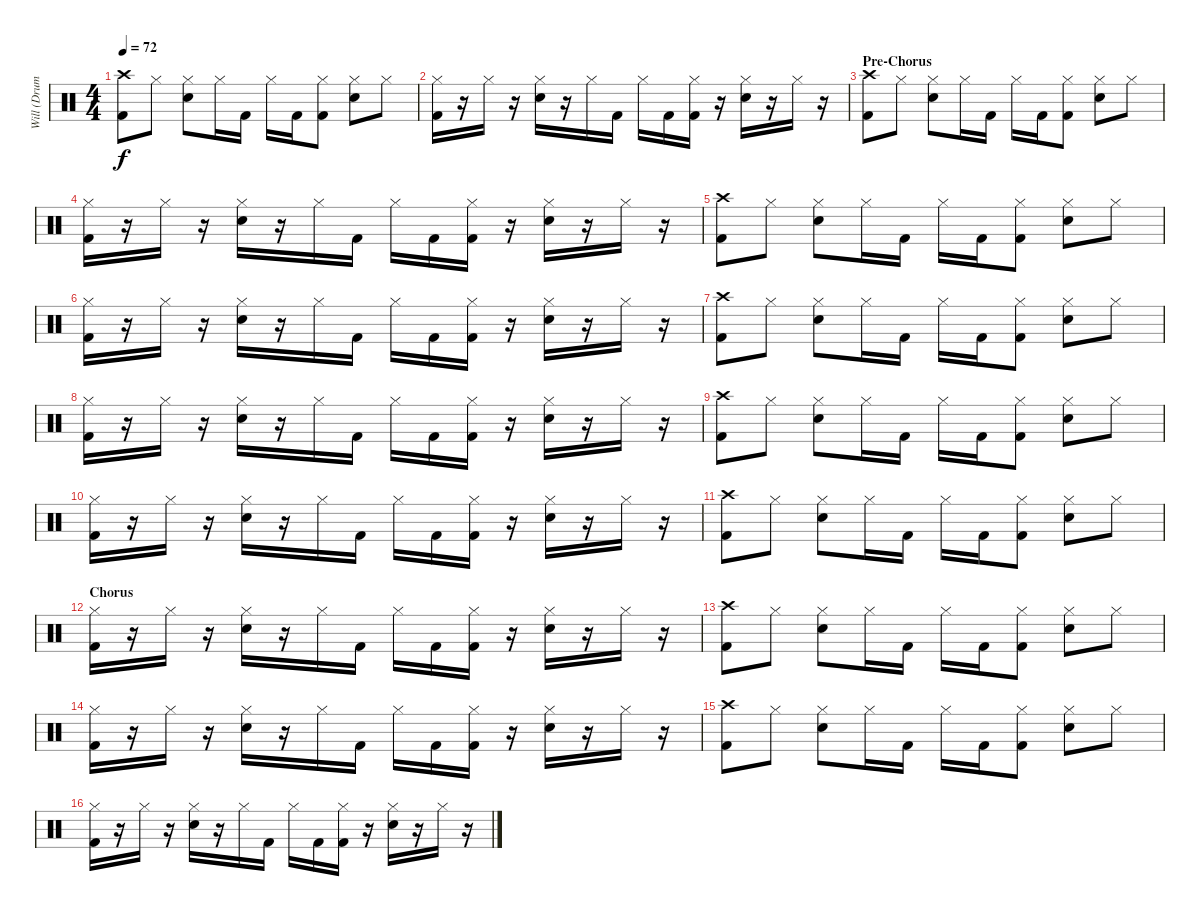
\track ("Will (Drums)" "Will (Drum") {instrument percussion}
\staff {score}
\articulation defaults
\ts (4 4)
\tempo 72
\clef neutral
\ks c
("Crash high (hit)" "Kick (hit) 2").8{dy f} "Hi-Hat (closed)".8 ("Hi-Hat (closed)" "Snare (hit) 2").8 "Hi-Hat (closed)".16 "Kick (hit) 2".16 "Hi-Hat (closed)".16 "Kick (hit) 2".16 ("Hi-Hat (closed)" "Kick (hit) 2").8 ("Hi-Hat (closed)" "Snare (hit) 2").8 "Hi-Hat (closed)".8 |
("Hi-Hat (closed)" "Kick (hit) 2").16 r.16 "Hi-Hat (closed)".16 r.16 ("Hi-Hat (closed)" "Snare (hit) 2").16 r.16 "Hi-Hat (closed)".16 "Kick (hit) 2".16 "Hi-Hat (closed)".16 "Kick (hit) 2".16 ("Hi-Hat (closed)" "Kick (hit) 2").16 r.16 ("Hi-Hat (closed)" "Snare (hit) 2").16 r.16 "Hi-Hat (closed)".16 r.16 |
\section ("" "Pre-Chorus")
("Crash high (hit)" "Kick (hit) 2").8 "Hi-Hat (closed)".8 ("Hi-Hat (closed)" "Snare (hit) 2").8 "Hi-Hat (closed)".16 "Kick (hit) 2".16 "Hi-Hat (closed)".16 "Kick (hit) 2".16 ("Hi-Hat (closed)" "Kick (hit) 2").8 ("Hi-Hat (closed)" "Snare (hit) 2").8 "Hi-Hat (closed)".8 |
("Hi-Hat (closed)" "Kick (hit) 2").16 r.16 "Hi-Hat (closed)".16 r.16 ("Hi-Hat (closed)" "Snare (hit) 2").16 r.16 "Hi-Hat (closed)".16 "Kick (hit) 2".16 "Hi-Hat (closed)".16 "Kick (hit) 2".16 ("Hi-Hat (closed)" "Kick (hit) 2").16 r.16 ("Hi-Hat (closed)" "Snare (hit) 2").16 r.16 "Hi-Hat (closed)".16 r.16 |
("Crash high (hit)" "Kick (hit) 2").8 "Hi-Hat (closed)".8 ("Hi-Hat (closed)" "Snare (hit) 2").8 "Hi-Hat (closed)".16 "Kick (hit) 2".16 "Hi-Hat (closed)".16 "Kick (hit) 2".16 ("Hi-Hat (closed)" "Kick (hit) 2").8 ("Hi-Hat (closed)" "Snare (hit) 2").8 "Hi-Hat (closed)".8 |
("Hi-Hat (closed)" "Kick (hit) 2").16 r.16 "Hi-Hat (closed)".16 r.16 ("Hi-Hat (closed)" "Snare (hit) 2").16 r.16 "Hi-Hat (closed)".16 "Kick (hit) 2".16 "Hi-Hat (closed)".16 "Kick (hit) 2".16 ("Hi-Hat (closed)" "Kick (hit) 2").16 r.16 ("Hi-Hat (closed)" "Snare (hit) 2").16 r.16 "Hi-Hat (closed)".16 r.16 |
("Crash high (hit)" "Kick (hit) 2").8 "Hi-Hat (closed)".8 ("Hi-Hat (closed)" "Snare (hit) 2").8 "Hi-Hat (closed)".16 "Kick (hit) 2".16 "Hi-Hat (closed)".16 "Kick (hit) 2".16 ("Hi-Hat (closed)" "Kick (hit) 2").8 ("Hi-Hat (closed)" "Snare (hit) 2").8 "Hi-Hat (closed)".8 |
("Hi-Hat (closed)" "Kick (hit) 2").16 r.16 "Hi-Hat (closed)".16 r.16 ("Hi-Hat (closed)" "Snare (hit) 2").16 r.16 "Hi-Hat (closed)".16 "Kick (hit) 2".16 "Hi-Hat (closed)".16 "Kick (hit) 2".16 ("Hi-Hat (closed)" "Kick (hit) 2").16 r.16 ("Hi-Hat (closed)" "Snare (hit) 2").16 r.16 "Hi-Hat (closed)".16 r.16 |
("Crash high (hit)" "Kick (hit) 2").8 "Hi-Hat (closed)".8 ("Hi-Hat (closed)" "Snare (hit) 2").8 "Hi-Hat (closed)".16 "Kick (hit) 2".16 "Hi-Hat (closed)".16 "Kick (hit) 2".16 ("Hi-Hat (closed)" "Kick (hit) 2").8 ("Hi-Hat (closed)" "Snare (hit) 2").8 "Hi-Hat (closed)".8 |
("Hi-Hat (closed)" "Kick (hit) 2").16 r.16 "Hi-Hat (closed)".16 r.16 ("Hi-Hat (closed)" "Snare (hit) 2").16 r.16 "Hi-Hat (closed)".16 "Kick (hit) 2".16 "Hi-Hat (closed)".16 "Kick (hit) 2".16 ("Hi-Hat (closed)" "Kick (hit) 2").16 r.16 ("Hi-Hat (closed)" "Snare (hit) 2").16 r.16 "Hi-Hat (closed)".16 r.16 |
("Crash high (hit)" "Kick (hit) 2").8 "Hi-Hat (closed)".8 ("Hi-Hat (closed)" "Snare (hit) 2").8 "Hi-Hat (closed)".16 "Kick (hit) 2".16 "Hi-Hat (closed)".16 "Kick (hit) 2".16 ("Hi-Hat (closed)" "Kick (hit) 2").8 ("Hi-Hat (closed)" "Snare (hit) 2").8 "Hi-Hat (closed)".8 |
\section ("" "Chorus")
("Hi-Hat (closed)" "Kick (hit) 2").16 r.16 "Hi-Hat (closed)".16 r.16 ("Hi-Hat (closed)" "Snare (hit) 2").16 r.16 "Hi-Hat (closed)".16 "Kick (hit) 2".16 "Hi-Hat (closed)".16 "Kick (hit) 2".16 ("Hi-Hat (closed)" "Kick (hit) 2").16 r.16 ("Hi-Hat (closed)" "Snare (hit) 2").16 r.16 "Hi-Hat (closed)".16 r.16 |
("Crash high (hit)" "Kick (hit) 2").8 "Hi-Hat (closed)".8 ("Hi-Hat (closed)" "Snare (hit) 2").8 "Hi-Hat (closed)".16 "Kick (hit) 2".16 "Hi-Hat (closed)".16 "Kick (hit) 2".16 ("Hi-Hat (closed)" "Kick (hit) 2").8 ("Hi-Hat (closed)" "Snare (hit) 2").8 "Hi-Hat (closed)".8 |
("Hi-Hat (closed)" "Kick (hit) 2").16 r.16 "Hi-Hat (closed)".16 r.16 ("Hi-Hat (closed)" "Snare (hit) 2").16 r.16 "Hi-Hat (closed)".16 "Kick (hit) 2".16 "Hi-Hat (closed)".16 "Kick (hit) 2".16 ("Hi-Hat (closed)" "Kick (hit) 2").16 r.16 ("Hi-Hat (closed)" "Snare (hit) 2").16 r.16 "Hi-Hat (closed)".16 r.16 |
("Crash high (hit)" "Kick (hit) 2").8 "Hi-Hat (closed)".8 ("Hi-Hat (closed)" "Snare (hit) 2").8 "Hi-Hat (closed)".16 "Kick (hit) 2".16 "Hi-Hat (closed)".16 "Kick (hit) 2".16 ("Hi-Hat (closed)" "Kick (hit) 2").8 ("Hi-Hat (closed)" "Snare (hit) 2").8 "Hi-Hat (closed)".8 |
("Hi-Hat (closed)" "Kick (hit) 2").16 r.16 "Hi-Hat (closed)".16 r.16 ("Hi-Hat (closed)" "Snare (hit) 2").16 r.16 "Hi-Hat (closed)".16 "Kick (hit) 2".16 "Hi-Hat (closed)".16 "Kick (hit) 2".16 ("Hi-Hat (closed)" "Kick (hit) 2").16 r.16 ("Hi-Hat (closed)" "Snare (hit) 2").16 r.16 "Hi-Hat (closed)".16 r.16
